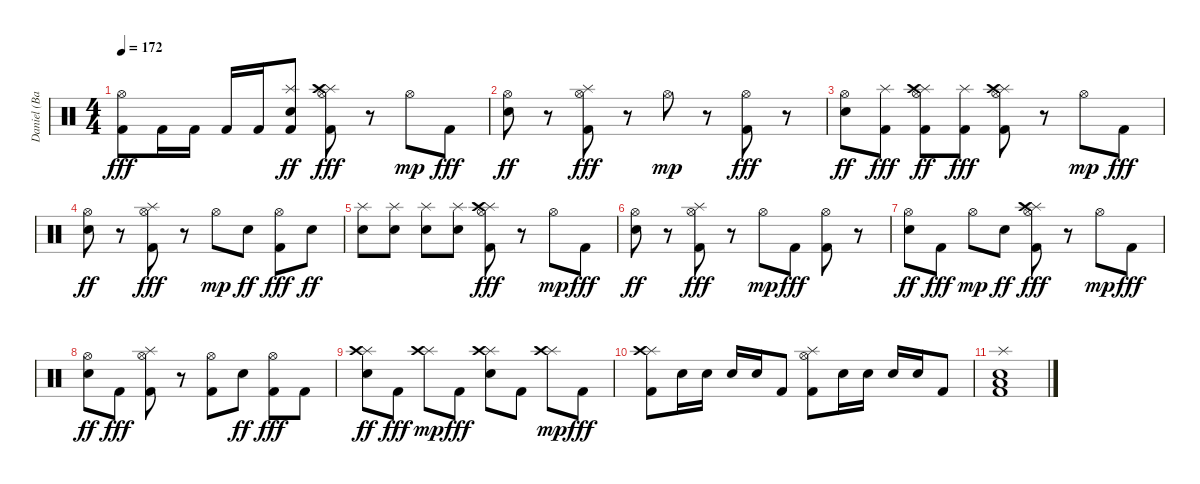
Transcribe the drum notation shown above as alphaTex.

\track ("Daniel (Bateria)" "Daniel (Ba") {instrument percussion}
\staff {score}
\articulation defaults
\ts (4 4)
\tempo 172
\clef neutral
\ks c
("Hi-Hat (open)" "Kick (hit) 2").8{dy fff} "Kick (hit) 2".16 "Kick (hit) 2".16 "Kick (hit) 2".16 "Kick (hit) 2".16 ("Splash (hit)" "Electric Snare (hit)" "Kick (hit) 2").8{dy ff} ("Splash (hit)" "Hi-Hat (open)" "Crash high (hit)" "Kick (hit) 2").8{dy fff} r.8 "Hi-Hat (open)".8{dy mp} "Kick (hit) 2".8{dy fff} |
("Hi-Hat (open)" "Electric Snare (hit)").8{dy ff} r.8 ("Splash (hit)" "Hi-Hat (open)" "Kick (hit) 2").8{dy fff} r.8 "Hi-Hat (open)".8{dy mp} r.8 ("Hi-Hat (open)" "Kick (hit) 2").8{dy fff} r.8 |
("Hi-Hat (open)" "Electric Snare (hit)").8{dy ff} ("Splash (hit)" "Kick (hit) 2").8{dy fff} ("Splash (hit)" "Hi-Hat (open)" "Crash high (hit)" "Kick (hit) 2").8{dy ff} ("Splash (hit)" "Kick (hit) 2").8{dy fff} ("Splash (hit)" "Hi-Hat (open)" "Crash high (hit)" "Kick (hit) 2").8 r.8 "Hi-Hat (open)".8{dy mp} "Kick (hit) 2".8{dy fff} |
("Hi-Hat (open)" "Electric Snare (hit)").8{dy ff} r.8 ("Splash (hit)" "Hi-Hat (open)" "Kick (hit) 2").8{dy fff} r.8 "Hi-Hat (open)".8{dy mp} "Electric Snare (hit)".8{dy ff} ("Hi-Hat (open)" "Kick (hit) 2").8{dy fff} "Electric Snare (hit)".8{dy ff} |
("Splash (hit)" "Electric Snare (hit)").8 ("Splash (hit)" "Electric Snare (hit)").8 ("Splash (hit)" "Electric Snare (hit)").8 ("Splash (hit)" "Electric Snare (hit)").8 ("Splash (hit)" "Hi-Hat (open)" "Crash high (hit)" "Kick (hit) 2").8{dy fff} r.8 "Hi-Hat (open)".8{dy mp} "Kick (hit) 2".8{dy fff} |
("Hi-Hat (open)" "Electric Snare (hit)").8{dy ff} r.8 ("Splash (hit)" "Hi-Hat (open)" "Kick (hit) 2").8{dy fff} r.8 "Hi-Hat (open)".8{dy mp} "Kick (hit) 2".8{dy fff} ("Hi-Hat (open)" "Kick (hit) 2").8 r.8 |
("Hi-Hat (open)" "Electric Snare (hit)").8{dy ff} "Kick (hit) 2".8{dy fff} "Hi-Hat (open)".8{dy mp} "Electric Snare (hit)".8{dy ff} ("Splash (hit)" "Hi-Hat (open)" "Crash high (hit)" "Kick (hit) 2").8{dy fff} r.8 "Hi-Hat (open)".8{dy mp} "Kick (hit) 2".8{dy fff} |
("Hi-Hat (open)" "Electric Snare (hit)").8{dy ff} "Kick (hit) 2".8{dy fff} ("Splash (hit)" "Hi-Hat (open)" "Kick (hit) 2").8 r.8 ("Hi-Hat (open)" "Kick (hit) 2").8 "Electric Snare (hit)".8{dy ff} ("Hi-Hat (open)" "Kick (hit) 2").8{dy fff} "Kick (hit) 2".8 |
("Splash (hit)" "Crash high (hit)" "Electric Snare (hit)").8{dy ff} "Kick (hit) 2".8{dy fff} ("Splash (hit)" "Crash high (hit)").8{dy mp} "Kick (hit) 2".8{dy fff} ("Splash (hit)" "Crash high (hit)" "Electric Snare (hit)").8 "Kick (hit) 2".8 ("Splash (hit)" "Crash high (hit)").8{dy mp} "Kick (hit) 2".8{dy fff} |
("Splash (hit)" "Crash high (hit)" "Kick (hit) 2").8 "Electric Snare (hit)".16 "Electric Snare (hit)".16 "Electric Snare (hit)".16 "Electric Snare (hit)".16 "Kick (hit) 2".8 ("Splash (hit)" "Hi-Hat (open)" "Kick (hit) 2").8 "Electric Snare (hit)".16 "Electric Snare (hit)".16 "Electric Snare (hit)".16 "Electric Snare (hit)".16 "Kick (hit) 2".8 |
("Splash (hit)" "Low Floor Tom (hit)" "Electric Snare (hit)" "Kick (hit) 2").1
